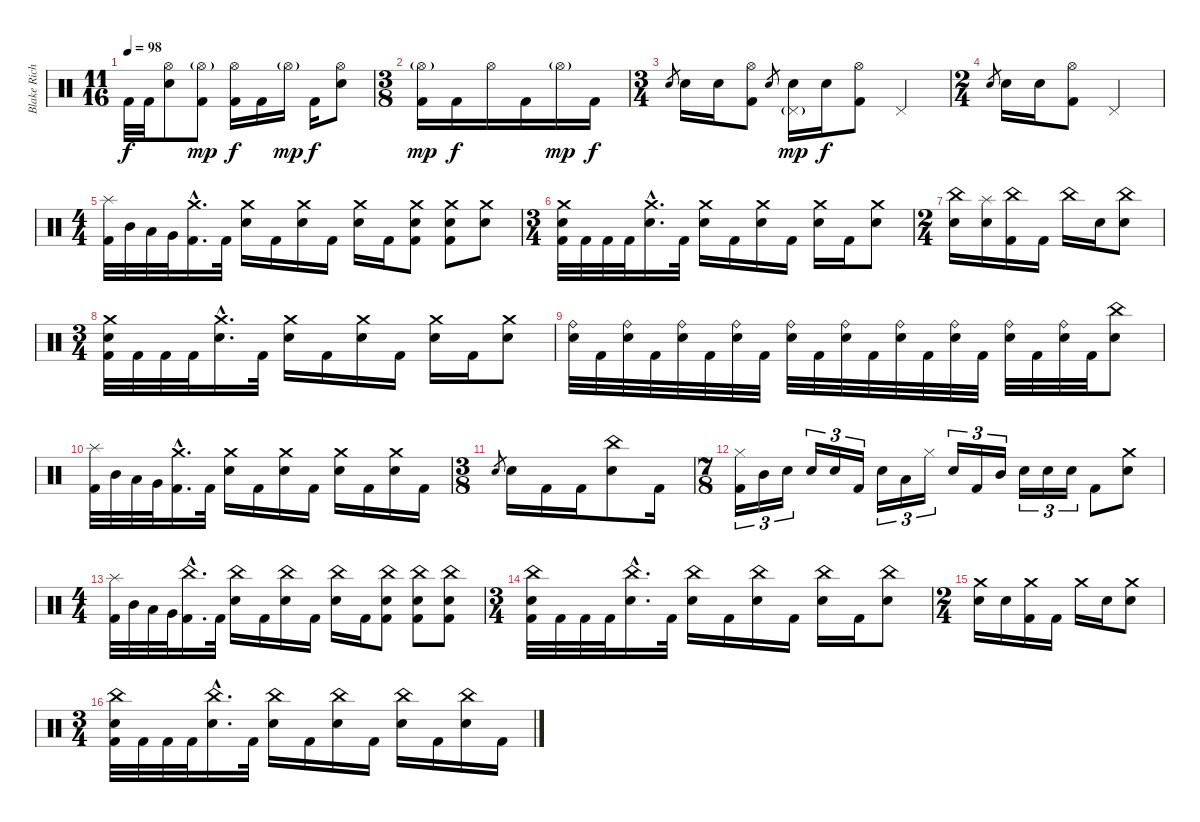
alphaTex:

\track ("Blake Richardson - Drums" "Blake Rich") {instrument percussion}
\staff {score}
\articulation defaults
\ts (11 16)
\tempo 98
\clef neutral
\ks c "Kick (hit) 2".32{dy f} "Kick (hit) 2".32
("Hi-Hat (open)" "Electric Snare (hit)").8 ("Hi-Hat (open)"{g} "Kick (hit) 2").8{dy mp} ("Hi-Hat (open)" "Kick (hit) 2").16{dy f} "Kick (hit) 2".16 "Hi-Hat (open)"{g}.16{dy mp} "Kick (hit) 2".16{dy f} ("Hi-Hat (open)" "Electric Snare (hit)").8 |
\ts (3 8)
("Hi-Hat (open)"{g} "Kick (hit) 2").16{dy mp} "Kick (hit) 2".16{dy f} "Hi-Hat (open)".16 "Kick (hit) 2".16 "Hi-Hat (open)"{g}.16{dy mp} "Kick (hit) 2".16{dy f} |
\ts (3 4)
"Electric Snare (hit)".8{gr} "Electric Snare (hit)".16 "Electric Snare (hit)".16 ("Hi-Hat (open)" "Kick (hit) 2").8 "Electric Snare (hit)".8{gr} ("Electric Snare (hit)" "Pedal Hi-Hat (hit)"{g}).16{dy mp} "Electric Snare (hit)".16{dy f} ("Hi-Hat (open)" "Kick (hit) 2").8 "Pedal Hi-Hat (hit)".4 |
\ts (2 4)
"Electric Snare (hit)".8{gr} "Electric Snare (hit)".16 "Electric Snare (hit)".16 ("Hi-Hat (open)" "Kick (hit) 2").8 "Pedal Hi-Hat (hit)".4 |
\ts (4 4)
("Splash (hit)" "Kick (hit) 2").32 "Mid Tom (hit)".32 "Low Tom (hit)".32 "Very Low Tom (hit)".32 ("Crash medium (hit)"{hac} "Kick (hit) 2"{hac}).16{d} "Kick (hit) 2".32 ("Crash medium (hit)" "Electric Snare (hit)").16 "Kick (hit) 2".16 ("Crash medium (hit)" "Electric Snare (hit)").16 "Kick (hit) 2".16 ("Crash medium (hit)" "Electric Snare (hit)").16 "Kick (hit) 2".16 ("Crash medium (hit)" "Electric Snare (hit)" "Kick (hit) 2").8 ("Crash medium (hit)" "Electric Snare (hit)" "Kick (hit) 2").8 ("Crash medium (hit)" "Electric Snare (hit)").8 |
\ts (3 4)
("Crash medium (hit)" "Electric Snare (hit)" "Kick (hit) 2").32 "Kick (hit) 2".32 "Kick (hit) 2".32 "Kick (hit) 2".32 ("Crash medium (hit)"{hac} "Electric Snare (hit)"{hac}).16{d} "Kick (hit) 2".32 ("Crash medium (hit)" "Electric Snare (hit)").16 "Kick (hit) 2".16 ("Crash medium (hit)" "Electric Snare (hit)").16 "Kick (hit) 2".16 ("Crash medium (hit)" "Electric Snare (hit)").16 "Kick (hit) 2".16 ("Crash medium (hit)" "Electric Snare (hit)").8 |
\ts (2 4)
("China (hit)" "Electric Snare (hit)").16 ("Splash (hit)" "Electric Snare (hit)").16 ("China (hit)" "Kick (hit) 2").16 "Kick (hit) 2".16 "China (hit)".16 "Electric Snare (hit)".16 ("China (hit)" "Electric Snare (hit)").8 |
\ts (3 4)
("Crash medium (hit)" "Electric Snare (hit)" "Kick (hit) 2").32 "Kick (hit) 2".32 "Kick (hit) 2".32 "Kick (hit) 2".32 ("Crash medium (hit)"{hac} "Electric Snare (hit)"{hac}).16{d} "Kick (hit) 2".32 ("Crash medium (hit)" "Electric Snare (hit)").16 "Kick (hit) 2".16 ("Crash medium (hit)" "Electric Snare (hit)").16 "Kick (hit) 2".16 ("Crash medium (hit)" "Electric Snare (hit)").16 "Kick (hit) 2".16 ("Crash medium (hit)" "Electric Snare (hit)").8 |
("Ride (bell)" "Electric Snare (hit)").32 "Kick (hit) 2".32 ("Ride (bell)" "Electric Snare (hit)").32 "Kick (hit) 2".32 ("Ride (bell)" "Electric Snare (hit)").32 "Kick (hit) 2".32 ("Ride (bell)" "Electric Snare (hit)").32 "Kick (hit) 2".32 ("Ride (bell)" "Electric Snare (hit)").32 "Kick (hit) 2".32 ("Ride (bell)" "Electric Snare (hit)").32 "Kick (hit) 2".32 ("Ride (bell)" "Electric Snare (hit)").32 "Kick (hit) 2".32 ("Ride (bell)" "Electric Snare (hit)").32 "Kick (hit) 2".32 ("Ride (bell)" "Electric Snare (hit)").32 "Kick (hit) 2".32 ("Ride (bell)" "Electric Snare (hit)").32 "Kick (hit) 2".32 ("China (hit)" "Electric Snare (hit)").8 |
("Splash (hit)" "Kick (hit) 2").32 "Mid Tom (hit)".32 "Low Tom (hit)".32 "Very Low Tom (hit)".32 ("Crash medium (hit)"{hac} "Kick (hit) 2"{hac}).16{d} "Kick (hit) 2".32 ("Crash medium (hit)" "Electric Snare (hit)").16 "Kick (hit) 2".16 ("Crash medium (hit)" "Electric Snare (hit)").16 "Kick (hit) 2".16 ("Crash medium (hit)" "Electric Snare (hit)").16 "Kick (hit) 2".16 ("Crash medium (hit)" "Electric Snare (hit)").16 "Kick (hit) 2".16 |
\ts (3 8)
"Electric Snare (hit)".8{gr} "Electric Snare (hit)".16 "Kick (hit) 2".16 "Kick (hit) 2".16 ("China (hit)" "Electric Snare (hit)").8 "Kick (hit) 2".16 |
\ts (7 8)
("Hi-Hat (closed)" "Kick (hit) 2").16{tu (3 2)} "Mid Tom (hit)".16{tu (3 2)} "Electric Snare (hit)".16{tu (3 2)} "Electric Snare (hit)".16{tu (3 2)} "Electric Snare (hit)".16{tu (3 2)} "Kick (hit) 2".16{tu (3 2)} "Electric Snare (hit)".16{tu (3 2)} "Low Tom (hit)".16{tu (3 2)} "Hi-Hat (closed)".16{tu (3 2)} "Electric Snare (hit)".16{tu (3 2)} "Kick (hit) 2".16{tu (3 2)} "Mid Tom (hit)".16{tu (3 2)} "Electric Snare (hit)".16{tu (3 2)} "Electric Snare (hit)".16{tu (3 2)} "Electric Snare (hit)".16{tu (3 2)} "Kick (hit) 2".8 ("Crash medium (hit)" "Electric Snare (hit)").8 |
\ts (4 4)
("Splash (hit)" "Kick (hit) 2").32 "Mid Tom (hit)".32 "Low Tom (hit)".32 "Very Low Tom (hit)".32 ("China (hit)"{hac} "Kick (hit) 2"{hac}).16{d} "Kick (hit) 2".32 ("China (hit)" "Electric Snare (hit)").16 "Kick (hit) 2".16 ("China (hit)" "Electric Snare (hit)").16 "Kick (hit) 2".16 ("China (hit)" "Electric Snare (hit)").16 "Kick (hit) 2".16 ("China (hit)" "Electric Snare (hit)" "Kick (hit) 2").8 ("China (hit)" "Electric Snare (hit)" "Kick (hit) 2").8 ("China (hit)" "Electric Snare (hit)" "Kick (hit) 2").8 |
\ts (3 4)
("China (hit)" "Electric Snare (hit)" "Kick (hit) 2").32 "Kick (hit) 2".32 "Kick (hit) 2".32 "Kick (hit) 2".32 ("China (hit)"{hac} "Electric Snare (hit)"{hac}).16{d} "Kick (hit) 2".32 ("China (hit)" "Electric Snare (hit)").16 "Kick (hit) 2".16 ("China (hit)" "Electric Snare (hit)").16 "Kick (hit) 2".16 ("China (hit)" "Electric Snare (hit)").16 "Kick (hit) 2".16 ("China (hit)" "Electric Snare (hit)").8 |
\ts (2 4)
("Crash medium (hit)" "Electric Snare (hit)").16 "Electric Snare (hit)".16 ("Crash medium (hit)" "Kick (hit) 2").16 "Kick (hit) 2".16 "Crash medium (hit)".16 "Electric Snare (hit)".16 ("Crash medium (hit)" "Electric Snare (hit)").8 |
\ts (3 4)
("China (hit)" "Electric Snare (hit)" "Kick (hit) 2").32 "Kick (hit) 2".32 "Kick (hit) 2".32 "Kick (hit) 2".32 ("China (hit)"{hac} "Electric Snare (hit)"{hac}).16{d} "Kick (hit) 2".32 ("China (hit)" "Electric Snare (hit)").16 "Kick (hit) 2".16 ("China (hit)" "Electric Snare (hit)").16 "Kick (hit) 2".16 ("China (hit)" "Electric Snare (hit)").16 "Kick (hit) 2".16 ("China (hit)" "Electric Snare (hit)").16 "Kick (hit) 2".16
